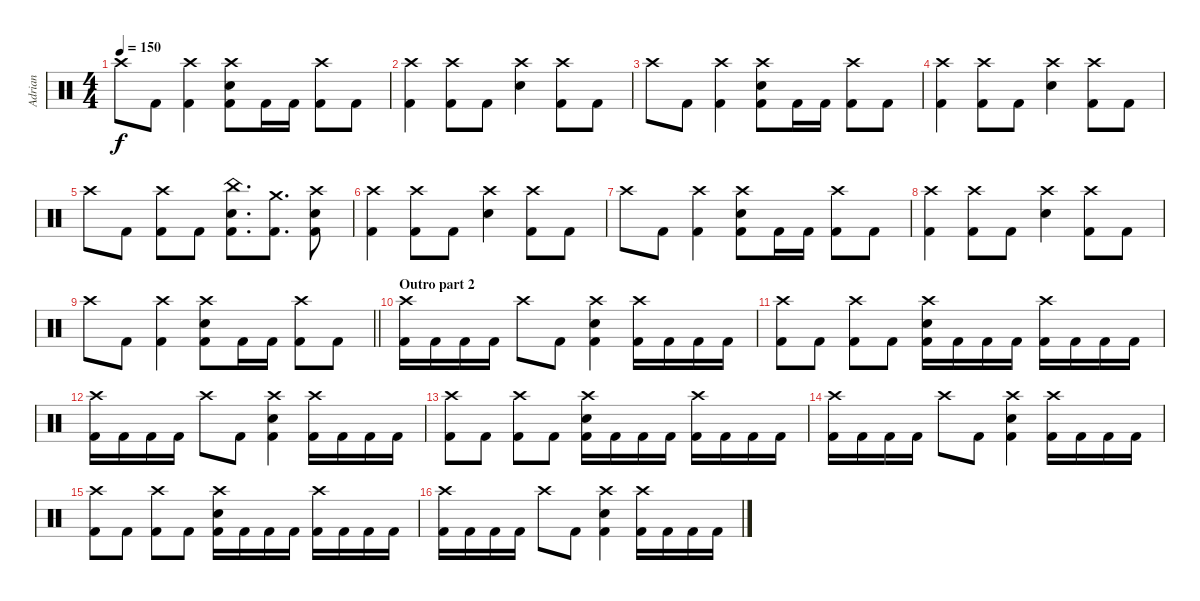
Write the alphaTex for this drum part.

\track ("Adrian" "Adrian") {instrument percussion}
\staff {score}
\articulation defaults
\ts (4 4)
\tempo 150
\clef neutral
\ks c "Crash high (hit)".8{dy f} "Kick (hit) 2".8
("Crash high (hit)" "Kick (hit) 2").4 ("Crash high (hit)" "Snare (hit) 2" "Kick (hit) 2").8 "Kick (hit) 2".16 "Kick (hit) 2".16 ("Crash high (hit)" "Kick (hit) 2").8 "Kick (hit) 2".8 |
("Crash high (hit)" "Kick (hit) 2").4 ("Crash high (hit)" "Kick (hit) 2").8 "Kick (hit) 2".8 ("Crash high (hit)" "Snare (hit) 2").4 ("Crash high (hit)" "Kick (hit) 2").8 "Kick (hit) 2".8 |
"Crash high (hit)".8 "Kick (hit) 2".8 ("Crash high (hit)" "Kick (hit) 2").4 ("Crash high (hit)" "Snare (hit) 2" "Kick (hit) 2").8 "Kick (hit) 2".16 "Kick (hit) 2".16 ("Crash high (hit)" "Kick (hit) 2").8 "Kick (hit) 2".8 |
("Crash high (hit)" "Kick (hit) 2").4 ("Crash high (hit)" "Kick (hit) 2").8 "Kick (hit) 2".8 ("Crash high (hit)" "Snare (hit) 2").4 ("Crash high (hit)" "Kick (hit) 2").8 "Kick (hit) 2".8 |
"Crash high (hit)".8 "Kick (hit) 2".8 ("Crash high (hit)" "Kick (hit) 2").8 "Kick (hit) 2".8 ("China (hit)" "Snare (hit) 2" "Kick (hit) 2").8{d} ("Crash medium (hit)" "Kick (hit) 2").8{d} ("Crash high (hit)" "Snare (hit) 2" "Kick (hit) 2").8 |
("Crash high (hit)" "Kick (hit) 2").4 ("Crash high (hit)" "Kick (hit) 2").8 "Kick (hit) 2".8 ("Crash high (hit)" "Snare (hit) 2").4 ("Crash high (hit)" "Kick (hit) 2").8 "Kick (hit) 2".8 |
"Crash high (hit)".8 "Kick (hit) 2".8 ("Crash high (hit)" "Kick (hit) 2").4 ("Crash high (hit)" "Snare (hit) 2" "Kick (hit) 2").8 "Kick (hit) 2".16 "Kick (hit) 2".16 ("Crash high (hit)" "Kick (hit) 2").8 "Kick (hit) 2".8 |
("Crash high (hit)" "Kick (hit) 2").4 ("Crash high (hit)" "Kick (hit) 2").8 "Kick (hit) 2".8 ("Crash high (hit)" "Snare (hit) 2").4 ("Crash high (hit)" "Kick (hit) 2").8 "Kick (hit) 2".8 |
\barLineRight lightlight "Crash high (hit)".8 "Kick (hit) 2".8
("Crash high (hit)" "Kick (hit) 2").4 ("Crash high (hit)" "Snare (hit) 2" "Kick (hit) 2").8 "Kick (hit) 2".16 "Kick (hit) 2".16 ("Crash high (hit)" "Kick (hit) 2").8 "Kick (hit) 2".8 |
\section ("" "Outro part 2")
("Crash high (hit)" "Kick (hit) 2").16 "Kick (hit) 2".16 "Kick (hit) 2".16 "Kick (hit) 2".16 "Crash high (hit)".8 "Kick (hit) 2".8 ("Crash high (hit)" "Snare (hit) 2" "Kick (hit) 2").4 ("Crash high (hit)" "Kick (hit) 2").16 "Kick (hit) 2".16 "Kick (hit) 2".16 "Kick (hit) 2".16 |
("Crash high (hit)" "Kick (hit) 2").8 "Kick (hit) 2".8 ("Crash high (hit)" "Kick (hit) 2").8 "Kick (hit) 2".8 ("Crash high (hit)" "Snare (hit) 2" "Kick (hit) 2").16 "Kick (hit) 2".16 "Kick (hit) 2".16 "Kick (hit) 2".16 ("Crash high (hit)" "Kick (hit) 2").16 "Kick (hit) 2".16 "Kick (hit) 2".16 "Kick (hit) 2".16 |
("Crash high (hit)" "Kick (hit) 2").16 "Kick (hit) 2".16 "Kick (hit) 2".16 "Kick (hit) 2".16 "Crash high (hit)".8 "Kick (hit) 2".8 ("Crash high (hit)" "Snare (hit) 2" "Kick (hit) 2").4 ("Crash high (hit)" "Kick (hit) 2").16 "Kick (hit) 2".16 "Kick (hit) 2".16 "Kick (hit) 2".16 |
("Crash high (hit)" "Kick (hit) 2").8 "Kick (hit) 2".8 ("Crash high (hit)" "Kick (hit) 2").8 "Kick (hit) 2".8 ("Crash high (hit)" "Snare (hit) 2" "Kick (hit) 2").16 "Kick (hit) 2".16 "Kick (hit) 2".16 "Kick (hit) 2".16 ("Crash high (hit)" "Kick (hit) 2").16 "Kick (hit) 2".16 "Kick (hit) 2".16 "Kick (hit) 2".16 |
("Crash high (hit)" "Kick (hit) 2").16 "Kick (hit) 2".16 "Kick (hit) 2".16 "Kick (hit) 2".16 "Crash high (hit)".8 "Kick (hit) 2".8 ("Crash high (hit)" "Snare (hit) 2" "Kick (hit) 2").4 ("Crash high (hit)" "Kick (hit) 2").16 "Kick (hit) 2".16 "Kick (hit) 2".16 "Kick (hit) 2".16 |
("Crash high (hit)" "Kick (hit) 2").8 "Kick (hit) 2".8 ("Crash high (hit)" "Kick (hit) 2").8 "Kick (hit) 2".8 ("Crash high (hit)" "Snare (hit) 2" "Kick (hit) 2").16 "Kick (hit) 2".16 "Kick (hit) 2".16 "Kick (hit) 2".16 ("Crash high (hit)" "Kick (hit) 2").16 "Kick (hit) 2".16 "Kick (hit) 2".16 "Kick (hit) 2".16 |
("Crash high (hit)" "Kick (hit) 2").16 "Kick (hit) 2".16 "Kick (hit) 2".16 "Kick (hit) 2".16 "Crash high (hit)".8 "Kick (hit) 2".8 ("Crash high (hit)" "Snare (hit) 2" "Kick (hit) 2").4 ("Crash high (hit)" "Kick (hit) 2").16 "Kick (hit) 2".16 "Kick (hit) 2".16 "Kick (hit) 2".16
